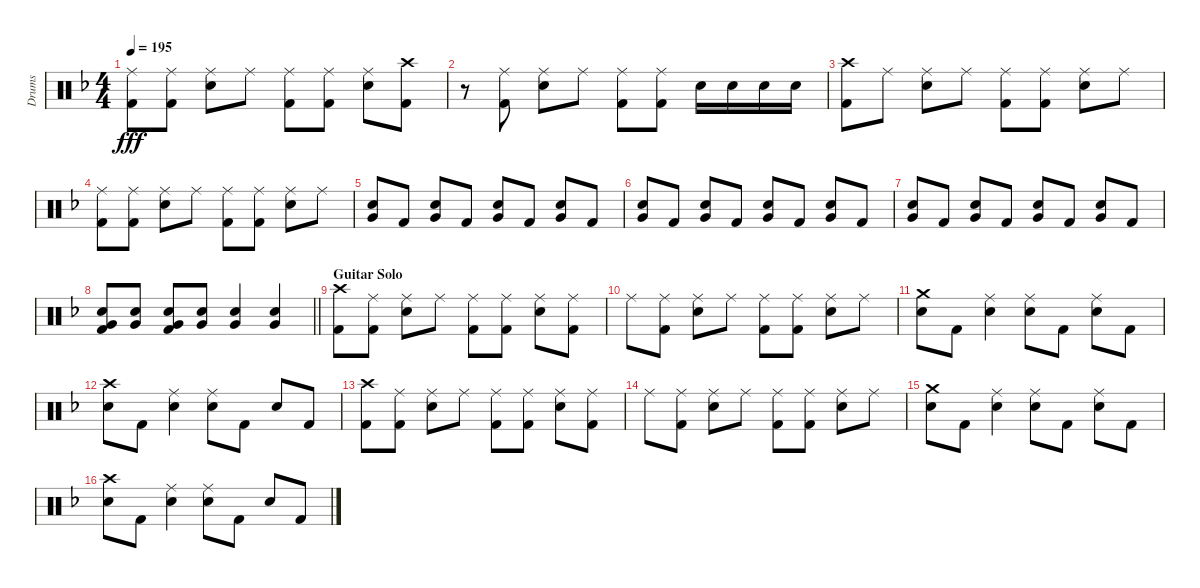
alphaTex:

\track ("Drums" "Drums") {instrument percussion}
\staff {score}
\articulation defaults
\ts (4 4)
\tempo 195
\clef neutral
\ks f
("Ride (middle)" "Kick (hit) 2").8{dy fff} ("Ride (middle)" "Kick (hit) 2").8 ("Ride (middle)" "Electric Snare (hit)").8 "Ride (middle)".8 ("Ride (middle)" "Kick (hit) 2").8 ("Ride (middle)" "Kick (hit) 2").8 ("Ride (middle)" "Electric Snare (hit)").8 ("Crash high (hit)" "Kick (hit) 2").8 |
r.8 ("Ride (middle)" "Kick (hit) 2").8 ("Ride (middle)" "Electric Snare (hit)").8 "Ride (middle)".8 ("Ride (middle)" "Kick (hit) 2").8 ("Ride (middle)" "Kick (hit) 2").8 "Electric Snare (hit)".16 "Electric Snare (hit)".16 "Electric Snare (hit)".16 "Electric Snare (hit)".16 |
("Crash high (hit)" "Kick (hit) 2").8 "Ride (middle)".8 ("Ride (middle)" "Electric Snare (hit)").8 "Ride (middle)".8 ("Ride (middle)" "Kick (hit) 2").8 ("Ride (middle)" "Kick (hit) 2").8 ("Ride (middle)" "Electric Snare (hit)").8 "Ride (middle)".8 |
("Ride (middle)" "Kick (hit) 2").8 ("Ride (middle)" "Kick (hit) 2").8 ("Ride (middle)" "Electric Snare (hit)").8 "Ride (middle)".8 ("Ride (middle)" "Kick (hit) 2").8 ("Ride (middle)" "Kick (hit) 2").8 ("Ride (middle)" "Electric Snare (hit)").8 "Ride (middle)".8 |
("Electric Snare (hit)" "Very Low Tom (hit)").8 "Kick (hit) 2".8 ("Electric Snare (hit)" "Very Low Tom (hit)").8 "Kick (hit) 2".8 ("Electric Snare (hit)" "Very Low Tom (hit)").8 "Kick (hit) 2".8 ("Electric Snare (hit)" "Very Low Tom (hit)").8 "Kick (hit) 2".8 |
("Electric Snare (hit)" "Very Low Tom (hit)").8 "Kick (hit) 2".8 ("Electric Snare (hit)" "Very Low Tom (hit)").8 "Kick (hit) 2".8 ("Electric Snare (hit)" "Very Low Tom (hit)").8 "Kick (hit) 2".8 ("Electric Snare (hit)" "Very Low Tom (hit)").8 "Kick (hit) 2".8 |
("Electric Snare (hit)" "Very Low Tom (hit)").8 "Kick (hit) 2".8 ("Electric Snare (hit)" "Very Low Tom (hit)").8 "Kick (hit) 2".8 ("Electric Snare (hit)" "Very Low Tom (hit)").8 "Kick (hit) 2".8 ("Electric Snare (hit)" "Very Low Tom (hit)").8 "Kick (hit) 2".8 |
\barLineRight lightlight
("Very Low Tom (hit)" "Electric Snare (hit)" "Kick (hit) 2").8 ("Very Low Tom (hit)" "Electric Snare (hit)").8 ("Very Low Tom (hit)" "Electric Snare (hit)" "Kick (hit) 2").8 ("Very Low Tom (hit)" "Electric Snare (hit)").8 ("Very Low Tom (hit)" "Electric Snare (hit)").4 ("Very Low Tom (hit)" "Electric Snare (hit)").4 |
\section ("" "Guitar Solo")
("Crash high (hit)" "Kick (hit) 2").8 ("Ride (middle)" "Kick (hit) 2").8 ("Ride (middle)" "Electric Snare (hit)").8 "Ride (middle)".8 ("Ride (middle)" "Kick (hit) 2").8 ("Ride (middle)" "Kick (hit) 2").8 ("Ride (middle)" "Electric Snare (hit)").8 ("Ride (middle)" "Kick (hit) 2").8 |
"Ride (middle)".8 ("Ride (middle)" "Kick (hit) 2").8 ("Ride (middle)" "Electric Snare (hit)").8 "Ride (middle)".8 ("Ride (middle)" "Kick (hit) 2").8 ("Ride (middle)" "Kick (hit) 2").8 ("Ride (middle)" "Electric Snare (hit)").8 "Ride (middle)".8 |
("Crash medium (hit)" "Electric Snare (hit)").8 "Kick (hit) 2".8 ("Ride (middle)" "Electric Snare (hit)").4 ("Ride (middle)" "Electric Snare (hit)").8 "Kick (hit) 2".8 ("Ride (middle)" "Electric Snare (hit)").8 "Kick (hit) 2".8 |
("Crash high (hit)" "Electric Snare (hit)").8 "Kick (hit) 2".8 ("Ride (middle)" "Electric Snare (hit)").4 ("Ride (middle)" "Electric Snare (hit)").8 "Kick (hit) 2".8 "Electric Snare (hit)".8 "Kick (hit) 2".8 |
("Crash high (hit)" "Kick (hit) 2").8 ("Ride (middle)" "Kick (hit) 2").8 ("Ride (middle)" "Electric Snare (hit)").8 "Ride (middle)".8 ("Ride (middle)" "Kick (hit) 2").8 ("Ride (middle)" "Kick (hit) 2").8 ("Ride (middle)" "Electric Snare (hit)").8 ("Ride (middle)" "Kick (hit) 2").8 |
"Ride (middle)".8 ("Ride (middle)" "Kick (hit) 2").8 ("Ride (middle)" "Electric Snare (hit)").8 "Ride (middle)".8 ("Ride (middle)" "Kick (hit) 2").8 ("Ride (middle)" "Kick (hit) 2").8 ("Ride (middle)" "Electric Snare (hit)").8 "Ride (middle)".8 |
("Crash medium (hit)" "Electric Snare (hit)").8 "Kick (hit) 2".8 ("Ride (middle)" "Electric Snare (hit)").4 ("Ride (middle)" "Electric Snare (hit)").8 "Kick (hit) 2".8 ("Ride (middle)" "Electric Snare (hit)").8 "Kick (hit) 2".8 |
("Crash high (hit)" "Electric Snare (hit)").8 "Kick (hit) 2".8 ("Ride (middle)" "Electric Snare (hit)").4 ("Ride (middle)" "Electric Snare (hit)").8 "Kick (hit) 2".8 "Electric Snare (hit)".8 "Kick (hit) 2".8
